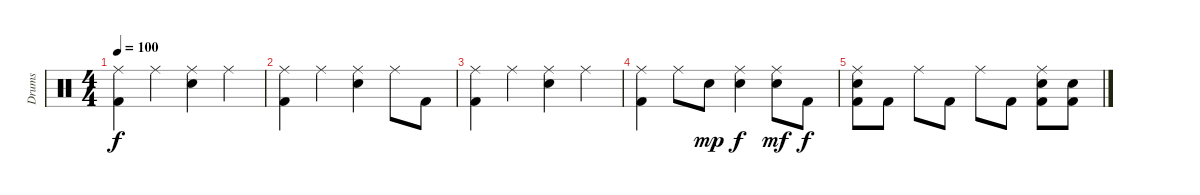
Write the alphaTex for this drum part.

\track ("Drums" "Drums") {instrument percussion}
\staff {score}
\articulation defaults
\ts (4 4)
\tempo 100
\clef neutral
\ks c
("Ride (middle)" "Kick (hit) 2").4{dy f} "Ride (middle)".4 ("Ride (middle)" "Electric Snare (hit)").4 "Ride (middle)".4 |
("Ride (middle)" "Kick (hit) 2").4{volume 6} "Ride (middle)".4 ("Ride (middle)" "Electric Snare (hit)").4 "Ride (middle)".8 "Kick (hit) 2".8 |
("Ride (middle)" "Kick (hit) 2").4 "Ride (middle)".4 ("Ride (middle)" "Electric Snare (hit)").4 "Ride (middle)".4 |
("Ride (middle)" "Kick (hit) 2").4{volume 0} "Ride (middle)".8 "Electric Snare (hit)".8{dy mp} ("Ride (middle)" "Electric Snare (hit)").4{dy f} ("Ride (middle)" "Electric Snare (hit)").8{dy mf} "Kick (hit) 2".8{dy f} |
("Ride (middle)" "Electric Snare (hit)" "Kick (hit) 2").8 "Kick (hit) 2".8 "Ride (middle)".8 "Kick (hit) 2".8 "Ride (middle)".8 "Kick (hit) 2".8 ("Ride (middle)" "Electric Snare (hit)" "Kick (hit) 2").8 ("Electric Snare (hit)" "Kick (hit) 2").8
